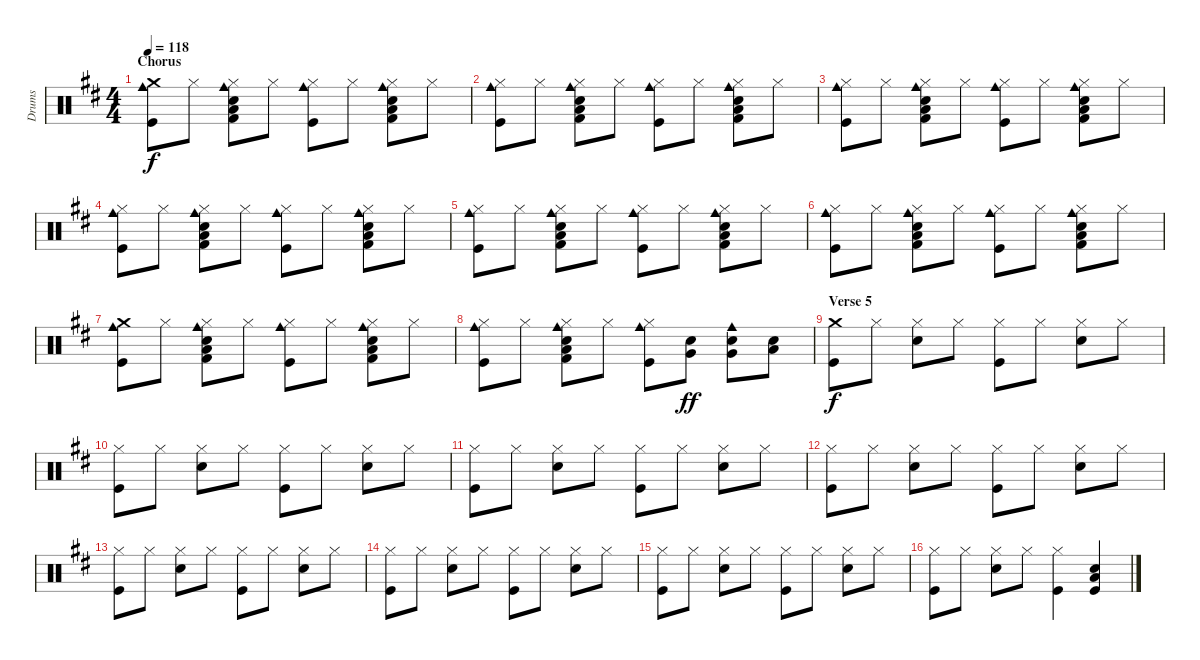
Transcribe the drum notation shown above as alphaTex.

\track ("Drums" "Drums") {instrument percussion}
\staff {score}
\articulation defaults
\ts (4 4)
\section ("" "Chorus")
\tempo 118
\clef neutral
\ks d
("Crash medium (hit)" "Cowbell medium (hit)" "Kick (hit)").8{dy f} "Hi-Hat (closed)".8 ("Hi-Hat (closed)" "Electric Snare (hit)" "Low Tom (hit)" "Cowbell medium (hit)" "Kick (hit) 2").8 "Hi-Hat (closed)".8 ("Hi-Hat (closed)" "Cowbell medium (hit)" "Kick (hit)").8 "Hi-Hat (closed)".8 ("Hi-Hat (closed)" "Electric Snare (hit)" "Low Tom (hit)" "Cowbell medium (hit)" "Kick (hit) 2").8 "Hi-Hat (closed)".8 |
("Hi-Hat (closed)" "Cowbell medium (hit)" "Kick (hit)").8 "Hi-Hat (closed)".8 ("Hi-Hat (closed)" "Electric Snare (hit)" "Low Tom (hit)" "Cowbell medium (hit)" "Kick (hit) 2").8 "Hi-Hat (closed)".8 ("Hi-Hat (closed)" "Cowbell medium (hit)" "Kick (hit)").8 "Hi-Hat (closed)".8 ("Hi-Hat (closed)" "Electric Snare (hit)" "Low Tom (hit)" "Cowbell medium (hit)" "Kick (hit) 2").8 "Hi-Hat (closed)".8 |
("Hi-Hat (closed)" "Cowbell medium (hit)" "Kick (hit)").8 "Hi-Hat (closed)".8 ("Hi-Hat (closed)" "Electric Snare (hit)" "Low Tom (hit)" "Cowbell medium (hit)" "Kick (hit) 2").8 "Hi-Hat (closed)".8 ("Hi-Hat (closed)" "Cowbell medium (hit)" "Kick (hit)").8 "Hi-Hat (closed)".8 ("Hi-Hat (closed)" "Electric Snare (hit)" "Low Tom (hit)" "Cowbell medium (hit)" "Kick (hit) 2").8 "Hi-Hat (closed)".8 |
("Hi-Hat (closed)" "Cowbell medium (hit)" "Kick (hit)").8 "Hi-Hat (closed)".8 ("Hi-Hat (closed)" "Electric Snare (hit)" "Low Tom (hit)" "Cowbell medium (hit)" "Kick (hit) 2").8 "Hi-Hat (closed)".8 ("Hi-Hat (closed)" "Cowbell medium (hit)" "Kick (hit)").8 "Hi-Hat (closed)".8 ("Hi-Hat (closed)" "Electric Snare (hit)" "Low Tom (hit)" "Cowbell medium (hit)" "Kick (hit) 2").8 "Hi-Hat (closed)".8 |
("Hi-Hat (closed)" "Cowbell medium (hit)" "Kick (hit)").8 "Hi-Hat (closed)".8 ("Hi-Hat (closed)" "Electric Snare (hit)" "Low Tom (hit)" "Cowbell medium (hit)" "Kick (hit) 2").8 "Hi-Hat (closed)".8 ("Hi-Hat (closed)" "Cowbell medium (hit)" "Kick (hit)").8 "Hi-Hat (closed)".8 ("Hi-Hat (closed)" "Electric Snare (hit)" "Low Tom (hit)" "Cowbell medium (hit)" "Kick (hit) 2").8 "Hi-Hat (closed)".8 |
("Hi-Hat (closed)" "Cowbell medium (hit)" "Kick (hit)").8 "Hi-Hat (closed)".8 ("Hi-Hat (closed)" "Electric Snare (hit)" "Low Tom (hit)" "Cowbell medium (hit)" "Kick (hit) 2").8 "Hi-Hat (closed)".8 ("Hi-Hat (closed)" "Cowbell medium (hit)" "Kick (hit)").8 "Hi-Hat (closed)".8 ("Hi-Hat (closed)" "Electric Snare (hit)" "Low Tom (hit)" "Cowbell medium (hit)" "Kick (hit) 2").8 "Hi-Hat (closed)".8 |
("Crash medium (hit)" "Cowbell medium (hit)" "Kick (hit)").8 "Hi-Hat (closed)".8 ("Hi-Hat (closed)" "Electric Snare (hit)" "Low Tom (hit)" "Cowbell medium (hit)" "Kick (hit) 2").8 "Hi-Hat (closed)".8 ("Hi-Hat (closed)" "Cowbell medium (hit)" "Kick (hit)").8 "Hi-Hat (closed)".8 ("Hi-Hat (closed)" "Electric Snare (hit)" "Low Tom (hit)" "Cowbell medium (hit)" "Kick (hit) 2").8 "Hi-Hat (closed)".8 |
("Hi-Hat (closed)" "Cowbell medium (hit)" "Kick (hit)").8 "Hi-Hat (closed)".8 ("Hi-Hat (closed)" "Electric Snare (hit)" "Low Tom (hit)" "Cowbell medium (hit)" "Kick (hit) 2").8 "Hi-Hat (closed)".8 ("Hi-Hat (closed)" "Cowbell medium (hit)" "Kick (hit)").8 ("Electric Snare (hit)" "Very Low Tom (hit)").8{dy ff} ("Electric Snare (hit)" "Very Low Tom (hit)" "Cowbell medium (hit)").8 ("Electric Snare (hit)" "Low Tom (hit)").8 |
\section ("" "Verse 5")
("Crash medium (hit)" "Kick (hit)").8{dy f} "Hi-Hat (closed)".8 ("Hi-Hat (closed)" "Electric Snare (hit)").8 "Hi-Hat (closed)".8 ("Hi-Hat (closed)" "Kick (hit)").8 "Hi-Hat (closed)".8 ("Hi-Hat (closed)" "Electric Snare (hit)").8 "Hi-Hat (closed)".8 |
("Hi-Hat (closed)" "Kick (hit)").8 "Hi-Hat (closed)".8 ("Hi-Hat (closed)" "Electric Snare (hit)").8 "Hi-Hat (closed)".8 ("Hi-Hat (closed)" "Kick (hit)").8 "Hi-Hat (closed)".8 ("Hi-Hat (closed)" "Electric Snare (hit)").8 "Hi-Hat (closed)".8 |
("Hi-Hat (closed)" "Kick (hit)").8 "Hi-Hat (closed)".8 ("Hi-Hat (closed)" "Electric Snare (hit)").8 "Hi-Hat (closed)".8 ("Hi-Hat (closed)" "Kick (hit)").8 "Hi-Hat (closed)".8 ("Hi-Hat (closed)" "Electric Snare (hit)").8 "Hi-Hat (closed)".8 |
("Hi-Hat (closed)" "Kick (hit)").8 "Hi-Hat (closed)".8 ("Hi-Hat (closed)" "Electric Snare (hit)").8 "Hi-Hat (closed)".8 ("Hi-Hat (closed)" "Kick (hit)").8 "Hi-Hat (closed)".8 ("Hi-Hat (closed)" "Electric Snare (hit)").8 "Hi-Hat (closed)".8 |
("Hi-Hat (closed)" "Kick (hit)").8 "Hi-Hat (closed)".8 ("Hi-Hat (closed)" "Electric Snare (hit)").8 "Hi-Hat (closed)".8 ("Hi-Hat (closed)" "Kick (hit)").8 "Hi-Hat (closed)".8 ("Hi-Hat (closed)" "Electric Snare (hit)").8 "Hi-Hat (closed)".8 |
("Hi-Hat (closed)" "Kick (hit)").8 "Hi-Hat (closed)".8 ("Hi-Hat (closed)" "Electric Snare (hit)").8 "Hi-Hat (closed)".8 ("Hi-Hat (closed)" "Kick (hit)").8 "Hi-Hat (closed)".8 ("Hi-Hat (closed)" "Electric Snare (hit)").8 "Hi-Hat (closed)".8 |
("Hi-Hat (closed)" "Kick (hit)").8 "Hi-Hat (closed)".8 ("Hi-Hat (closed)" "Electric Snare (hit)").8 "Hi-Hat (closed)".8 ("Hi-Hat (closed)" "Kick (hit)").8 "Hi-Hat (closed)".8 ("Hi-Hat (closed)" "Electric Snare (hit)").8 "Hi-Hat (closed)".8 |
("Hi-Hat (closed)" "Kick (hit)").8 "Hi-Hat (closed)".8 ("Hi-Hat (closed)" "Electric Snare (hit)").8 "Hi-Hat (closed)".8 ("Hi-Hat (closed)" "Kick (hit)").4 ("Electric Snare (hit)" "Low Tom (hit)" "Kick (hit)").4
